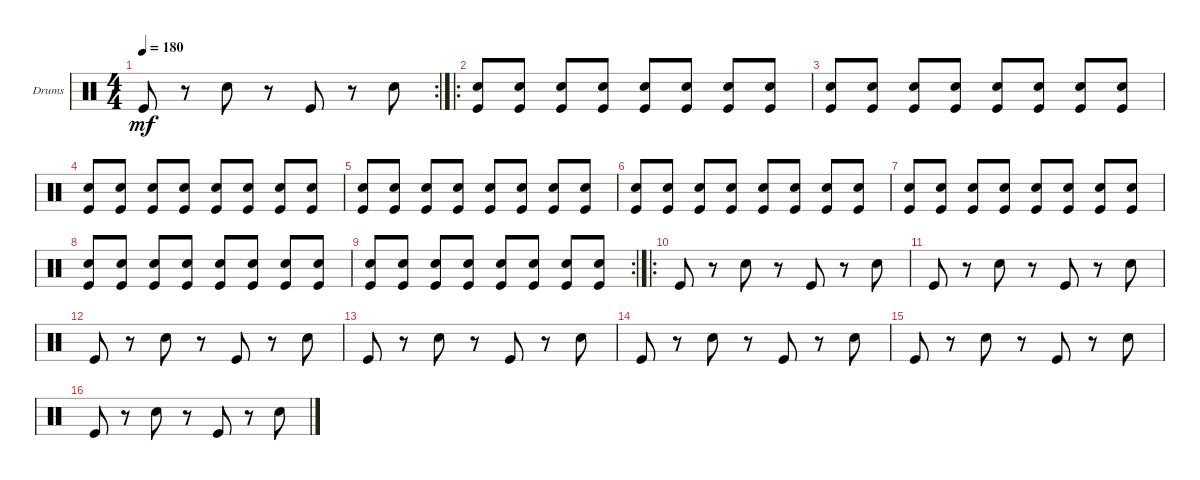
\defaultSystemsLayout 4
\bracketExtendMode groupsimilarinstruments
\firstSystemTrackNameOrientation horizontal
\otherSystemsTrackNameOrientation horizontal
\track ("Drumkit" "Drums") {instrument percussion}
\staff {score}
\articulation defaults
\rc 2
\ts (4 4)
\tempo 180
\clef neutral
\scale
0.356322
\ks c "Kick (hit)".8{dy mf}
r.8 "Snare (hit) 2".8 r.8 "Kick (hit)".8 r.8 "Snare (hit) 2".8 |
\ro
\scale
0.377778 ("Snare (hit) 2" "Kick (hit)").8 ("Snare (hit) 2" "Kick (hit)").8 ("Snare (hit) 2" "Kick (hit)").8 ("Snare (hit) 2" "Kick (hit)").8 ("Snare (hit) 2" "Kick (hit)").8 ("Snare (hit) 2" "Kick (hit)").8 ("Snare (hit) 2" "Kick (hit)").8 ("Snare (hit) 2" "Kick (hit)").8 |
\scale
0.311111 ("Snare (hit) 2" "Kick (hit)").8 ("Snare (hit) 2" "Kick (hit)").8 ("Snare (hit) 2" "Kick (hit)").8 ("Snare (hit) 2" "Kick (hit)").8 ("Snare (hit) 2" "Kick (hit)").8 ("Snare (hit) 2" "Kick (hit)").8 ("Snare (hit) 2" "Kick (hit)").8 ("Snare (hit) 2" "Kick (hit)").8 |
\scale
0.311111 ("Snare (hit) 2" "Kick (hit)").8 ("Snare (hit) 2" "Kick (hit)").8 ("Snare (hit) 2" "Kick (hit)").8 ("Snare (hit) 2" "Kick (hit)").8 ("Snare (hit) 2" "Kick (hit)").8 ("Snare (hit) 2" "Kick (hit)").8 ("Snare (hit) 2" "Kick (hit)").8 ("Snare (hit) 2" "Kick (hit)").8 |
\scale
0.333333 ("Snare (hit) 2" "Kick (hit)").8 ("Snare (hit) 2" "Kick (hit)").8 ("Snare (hit) 2" "Kick (hit)").8 ("Snare (hit) 2" "Kick (hit)").8 ("Snare (hit) 2" "Kick (hit)").8 ("Snare (hit) 2" "Kick (hit)").8 ("Snare (hit) 2" "Kick (hit)").8 ("Snare (hit) 2" "Kick (hit)").8 |
\scale
0.333333 ("Snare (hit) 2" "Kick (hit)").8 ("Snare (hit) 2" "Kick (hit)").8 ("Snare (hit) 2" "Kick (hit)").8 ("Snare (hit) 2" "Kick (hit)").8 ("Snare (hit) 2" "Kick (hit)").8 ("Snare (hit) 2" "Kick (hit)").8 ("Snare (hit) 2" "Kick (hit)").8 ("Snare (hit) 2" "Kick (hit)").8 |
\scale
0.333333 ("Snare (hit) 2" "Kick (hit)").8 ("Snare (hit) 2" "Kick (hit)").8 ("Snare (hit) 2" "Kick (hit)").8 ("Snare (hit) 2" "Kick (hit)").8 ("Snare (hit) 2" "Kick (hit)").8 ("Snare (hit) 2" "Kick (hit)").8 ("Snare (hit) 2" "Kick (hit)").8 ("Snare (hit) 2" "Kick (hit)").8 |
\scale
0.301075 ("Snare (hit) 2" "Kick (hit)").8 ("Snare (hit) 2" "Kick (hit)").8 ("Snare (hit) 2" "Kick (hit)").8 ("Snare (hit) 2" "Kick (hit)").8 ("Snare (hit) 2" "Kick (hit)").8 ("Snare (hit) 2" "Kick (hit)").8 ("Snare (hit) 2" "Kick (hit)").8 ("Snare (hit) 2" "Kick (hit)").8 |
\rc 2
\scale
0.333333 ("Snare (hit) 2" "Kick (hit)").8 ("Snare (hit) 2" "Kick (hit)").8 ("Snare (hit) 2" "Kick (hit)").8 ("Snare (hit) 2" "Kick (hit)").8 ("Snare (hit) 2" "Kick (hit)").8 ("Snare (hit) 2" "Kick (hit)").8 ("Snare (hit) 2" "Kick (hit)").8 ("Snare (hit) 2" "Kick (hit)").8 |
\ro
\scale
0.365591 "Kick (hit)".8 r.8 "Snare (hit) 2".8 r.8 "Kick (hit)".8 r.8 "Snare (hit) 2".8 |
\scale
0.333333 "Kick (hit)".8 r.8 "Snare (hit) 2".8 r.8 "Kick (hit)".8 r.8 "Snare (hit) 2".8 |
\scale
0.333333 "Kick (hit)".8 r.8 "Snare (hit) 2".8 r.8 "Kick (hit)".8 r.8 "Snare (hit) 2".8 |
\scale
0.333333 "Kick (hit)".8 r.8 "Snare (hit) 2".8 r.8 "Kick (hit)".8 r.8 "Snare (hit) 2".8 |
\scale
0.333333 "Kick (hit)".8 r.8 "Snare (hit) 2".8 r.8 "Kick (hit)".8 r.8 "Snare (hit) 2".8 |
\scale
0.333333 "Kick (hit)".8 r.8 "Snare (hit) 2".8 r.8 "Kick (hit)".8 r.8 "Snare (hit) 2".8 |
\scale
0.333333 "Kick (hit)".8 r.8 "Snare (hit) 2".8 r.8 "Kick (hit)".8 r.8 "Snare (hit) 2".8
